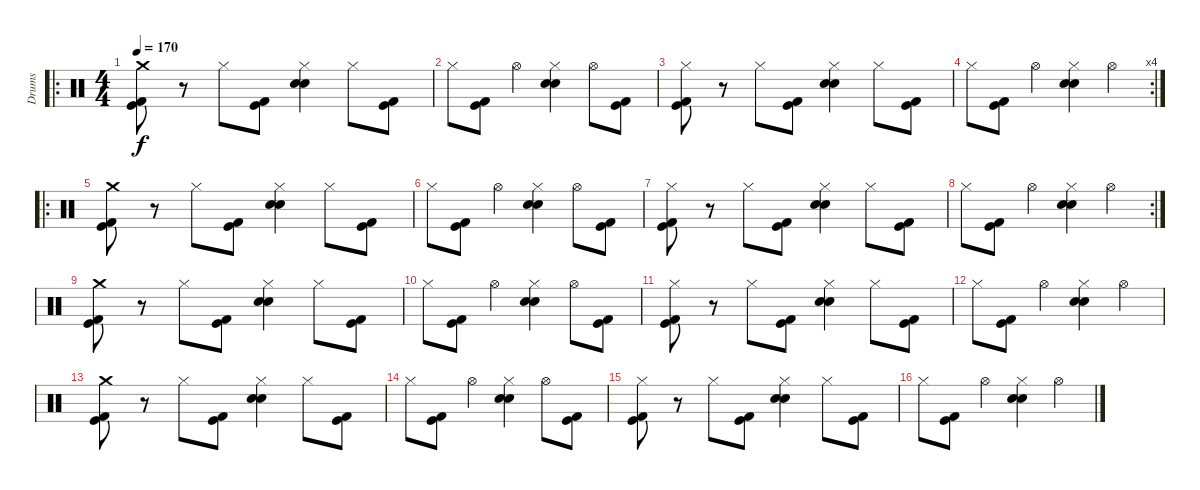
\track ("Drums" "Drums") {instrument percussion}
\staff {score}
\articulation defaults
\ro
\ts (4 4)
\tempo 170
\clef neutral
\ks c
("Crash medium (hit)" "Kick (hit) 2" "Kick (hit)").8{dy f} r.8 "Hi-Hat (closed)".8 ("Kick (hit) 2" "Kick (hit)").8 ("Hi-Hat (closed)" "Electric Snare (hit)" "Snare (hit) 2").4 "Hi-Hat (closed)".8 ("Kick (hit) 2" "Kick (hit)").8 |
"Hi-Hat (closed)".8 ("Kick (hit) 2" "Kick (hit)").8 "Hi-Hat (open)".4 ("Hi-Hat (closed)" "Electric Snare (hit)" "Snare (hit) 2").4 "Hi-Hat (open)".8 ("Kick (hit) 2" "Kick (hit)").8 |
("Hi-Hat (closed)" "Kick (hit) 2" "Kick (hit)").8 r.8 "Hi-Hat (closed)".8 ("Kick (hit) 2" "Kick (hit)").8 ("Hi-Hat (closed)" "Electric Snare (hit)" "Snare (hit) 2").4 "Hi-Hat (closed)".8 ("Kick (hit) 2" "Kick (hit)").8 |
\rc 4 "Hi-Hat (closed)".8
("Kick (hit) 2" "Kick (hit)").8 "Hi-Hat (open)".4 ("Hi-Hat (closed)" "Electric Snare (hit)" "Snare (hit) 2").4 "Hi-Hat (open)".4 |
\ro
("Crash medium (hit)" "Kick (hit) 2" "Kick (hit)").8 r.8 "Hi-Hat (closed)".8 ("Kick (hit) 2" "Kick (hit)").8 ("Hi-Hat (closed)" "Electric Snare (hit)" "Snare (hit) 2").4 "Hi-Hat (closed)".8 ("Kick (hit) 2" "Kick (hit)").8 |
"Hi-Hat (closed)".8 ("Kick (hit) 2" "Kick (hit)").8 "Hi-Hat (open)".4 ("Hi-Hat (closed)" "Electric Snare (hit)" "Snare (hit) 2").4 "Hi-Hat (open)".8 ("Kick (hit) 2" "Kick (hit)").8 |
("Hi-Hat (closed)" "Kick (hit) 2" "Kick (hit)").8 r.8 "Hi-Hat (closed)".8 ("Kick (hit) 2" "Kick (hit)").8 ("Hi-Hat (closed)" "Electric Snare (hit)" "Snare (hit) 2").4 "Hi-Hat (closed)".8 ("Kick (hit) 2" "Kick (hit)").8 |
\rc 2 "Hi-Hat (closed)".8
("Kick (hit) 2" "Kick (hit)").8 "Hi-Hat (open)".4 ("Hi-Hat (closed)" "Electric Snare (hit)" "Snare (hit) 2").4 "Hi-Hat (open)".4 |
("Crash medium (hit)" "Kick (hit) 2" "Kick (hit)").8 r.8 "Hi-Hat (closed)".8 ("Kick (hit) 2" "Kick (hit)").8 ("Hi-Hat (closed)" "Electric Snare (hit)" "Snare (hit) 2").4 "Hi-Hat (closed)".8 ("Kick (hit) 2" "Kick (hit)").8 |
"Hi-Hat (closed)".8 ("Kick (hit) 2" "Kick (hit)").8 "Hi-Hat (open)".4 ("Hi-Hat (closed)" "Electric Snare (hit)" "Snare (hit) 2").4 "Hi-Hat (open)".8 ("Kick (hit) 2" "Kick (hit)").8 |
("Hi-Hat (closed)" "Kick (hit) 2" "Kick (hit)").8 r.8 "Hi-Hat (closed)".8 ("Kick (hit) 2" "Kick (hit)").8 ("Hi-Hat (closed)" "Electric Snare (hit)" "Snare (hit) 2").4 "Hi-Hat (closed)".8 ("Kick (hit) 2" "Kick (hit)").8 |
"Hi-Hat (closed)".8 ("Kick (hit) 2" "Kick (hit)").8 "Hi-Hat (open)".4 ("Hi-Hat (closed)" "Electric Snare (hit)" "Snare (hit) 2").4 "Hi-Hat (open)".4 |
("Crash medium (hit)" "Kick (hit) 2" "Kick (hit)").8 r.8 "Hi-Hat (closed)".8 ("Kick (hit) 2" "Kick (hit)").8 ("Hi-Hat (closed)" "Electric Snare (hit)" "Snare (hit) 2").4 "Hi-Hat (closed)".8 ("Kick (hit) 2" "Kick (hit)").8 |
"Hi-Hat (closed)".8 ("Kick (hit) 2" "Kick (hit)").8 "Hi-Hat (open)".4 ("Hi-Hat (closed)" "Electric Snare (hit)" "Snare (hit) 2").4 "Hi-Hat (open)".8 ("Kick (hit) 2" "Kick (hit)").8 |
("Hi-Hat (closed)" "Kick (hit) 2" "Kick (hit)").8 r.8 "Hi-Hat (closed)".8 ("Kick (hit) 2" "Kick (hit)").8 ("Hi-Hat (closed)" "Electric Snare (hit)" "Snare (hit) 2").4 "Hi-Hat (closed)".8 ("Kick (hit) 2" "Kick (hit)").8 |
"Hi-Hat (closed)".8 ("Kick (hit) 2" "Kick (hit)").8 "Hi-Hat (open)".4 ("Hi-Hat (closed)" "Electric Snare (hit)" "Snare (hit) 2").4 "Hi-Hat (open)".4
